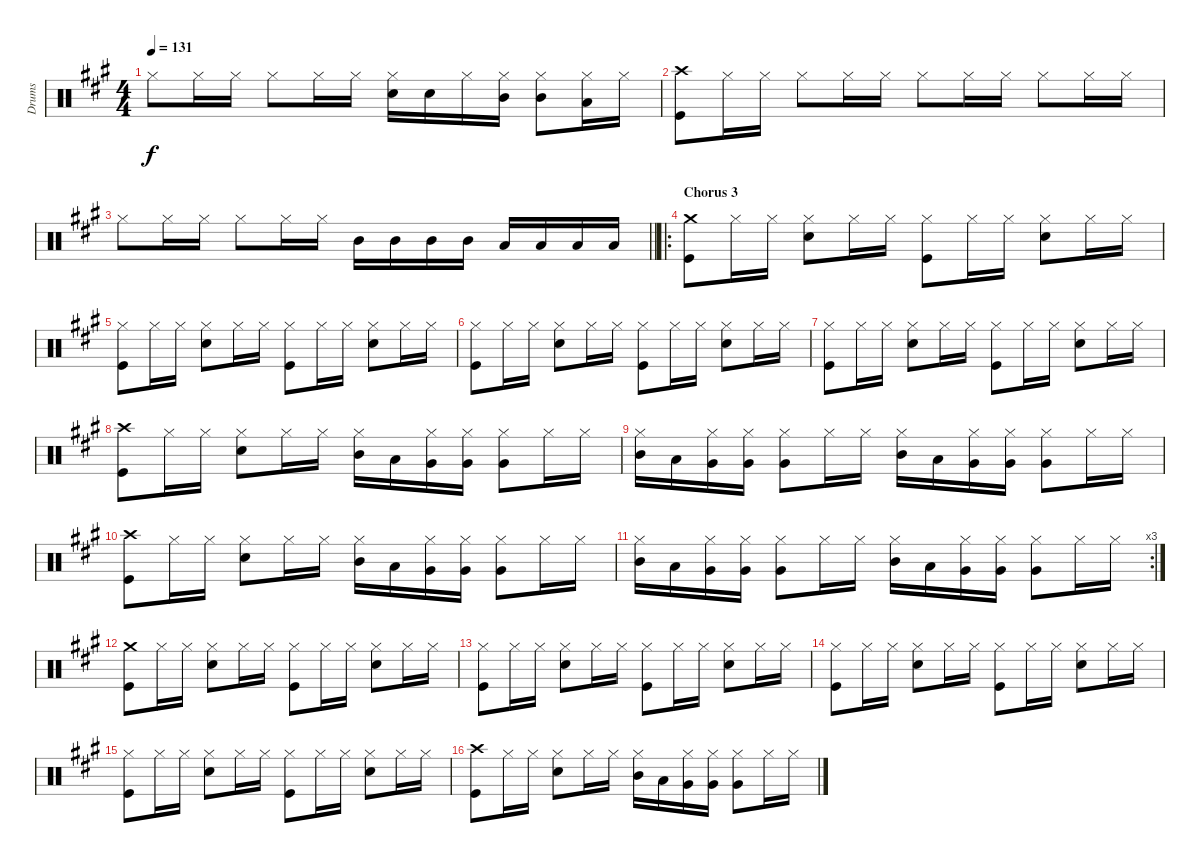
\track ("Drums" "Drums") {instrument percussion}
\staff {score}
\articulation defaults
\ts (4 4)
\tempo 131
\clef neutral
\ks a "Hi-Hat (closed)".8{dy f} "Hi-Hat (closed)".16 "Hi-Hat (closed)".16 "Hi-Hat (closed)".8 "Hi-Hat (closed)".16 "Hi-Hat (closed)".16
("Hi-Hat (closed)" "Snare (hit) 2").16 "Snare (hit) 2".16 "Hi-Hat (closed)".16 ("Hi-Hat (closed)" "Mid Tom (hit)").16 ("Hi-Hat (closed)" "Mid Tom (hit)").8 ("Hi-Hat (closed)" "Low Tom (hit)").16 "Hi-Hat (closed)".16 |
("Crash high (hit)" "Kick (hit)").8 "Hi-Hat (closed)".16 "Hi-Hat (closed)".16 "Hi-Hat (closed)".8 "Hi-Hat (closed)".16 "Hi-Hat (closed)".16 "Hi-Hat (closed)".8 "Hi-Hat (closed)".16 "Hi-Hat (closed)".16 "Hi-Hat (closed)".8 "Hi-Hat (closed)".16 "Hi-Hat (closed)".16 |
\barLineRight lightlight "Hi-Hat (closed)".8 "Hi-Hat (closed)".16 "Hi-Hat (closed)".16 "Hi-Hat (closed)".8 "Hi-Hat (closed)".16 "Hi-Hat (closed)".16 "Mid Tom (hit)".16 "Mid Tom (hit)".16 "Mid Tom (hit)".16 "Mid Tom (hit)".16 "Low Tom (hit)".16 "Low Tom (hit)".16 "Low Tom (hit)".16 "Low Tom (hit)".16
|
\ro
\section ("" "Chorus 3")
("Crash medium (hit)" "Kick (hit)").8 "Hi-Hat (closed)".16 "Hi-Hat (closed)".16 ("Hi-Hat (closed)" "Snare (hit) 2").8 "Hi-Hat (closed)".16 "Hi-Hat (closed)".16 ("Hi-Hat (closed)" "Kick (hit)").8 "Hi-Hat (closed)".16 "Hi-Hat (closed)".16 ("Hi-Hat (closed)" "Snare (hit) 2").8 "Hi-Hat (closed)".16 "Hi-Hat (closed)".16 |
("Hi-Hat (closed)" "Kick (hit)").8 "Hi-Hat (closed)".16 "Hi-Hat (closed)".16 ("Hi-Hat (closed)" "Snare (hit) 2").8 "Hi-Hat (closed)".16 "Hi-Hat (closed)".16 ("Hi-Hat (closed)" "Kick (hit)").8 "Hi-Hat (closed)".16 "Hi-Hat (closed)".16 ("Hi-Hat (closed)" "Snare (hit) 2").8 "Hi-Hat (closed)".16 "Hi-Hat (closed)".16 |
("Hi-Hat (closed)" "Kick (hit)").8 "Hi-Hat (closed)".16 "Hi-Hat (closed)".16 ("Hi-Hat (closed)" "Snare (hit) 2").8 "Hi-Hat (closed)".16 "Hi-Hat (closed)".16 ("Hi-Hat (closed)" "Kick (hit)").8 "Hi-Hat (closed)".16 "Hi-Hat (closed)".16 ("Hi-Hat (closed)" "Snare (hit) 2").8 "Hi-Hat (closed)".16 "Hi-Hat (closed)".16 |
("Hi-Hat (closed)" "Kick (hit)").8 "Hi-Hat (closed)".16 "Hi-Hat (closed)".16 ("Hi-Hat (closed)" "Snare (hit) 2").8 "Hi-Hat (closed)".16 "Hi-Hat (closed)".16 ("Hi-Hat (closed)" "Kick (hit)").8 "Hi-Hat (closed)".16 "Hi-Hat (closed)".16 ("Hi-Hat (closed)" "Snare (hit) 2").8 "Hi-Hat (closed)".16 "Hi-Hat (closed)".16 |
("Crash high (hit)" "Kick (hit)").8 "Hi-Hat (closed)".16 "Hi-Hat (closed)".16 ("Hi-Hat (closed)" "Snare (hit) 2").8 "Hi-Hat (closed)".16 "Hi-Hat (closed)".16 ("Hi-Hat (closed)" "Mid Tom (hit)").16 "Low Tom (hit)".16 ("Hi-Hat (closed)" "Very Low Tom (hit)").16 ("Hi-Hat (closed)" "Very Low Tom (hit)").16 ("Hi-Hat (closed)" "Very Low Tom (hit)").8 "Hi-Hat (closed)".16 "Hi-Hat (closed)".16 |
("Hi-Hat (closed)" "Mid Tom (hit)").16 "Low Tom (hit)".16 ("Hi-Hat (closed)" "Very Low Tom (hit)").16 ("Hi-Hat (closed)" "Very Low Tom (hit)").16 ("Hi-Hat (closed)" "Very Low Tom (hit)").8 "Hi-Hat (closed)".16 "Hi-Hat (closed)".16 ("Hi-Hat (closed)" "Mid Tom (hit)").16 "Low Tom (hit)".16 ("Hi-Hat (closed)" "Very Low Tom (hit)").16 ("Hi-Hat (closed)" "Very Low Tom (hit)").16 ("Hi-Hat (closed)" "Very Low Tom (hit)").8 "Hi-Hat (closed)".16 "Hi-Hat (closed)".16 |
("Crash high (hit)" "Kick (hit)").8 "Hi-Hat (closed)".16 "Hi-Hat (closed)".16 ("Hi-Hat (closed)" "Snare (hit) 2").8 "Hi-Hat (closed)".16 "Hi-Hat (closed)".16 ("Hi-Hat (closed)" "Mid Tom (hit)").16 "Low Tom (hit)".16 ("Hi-Hat (closed)" "Very Low Tom (hit)").16 ("Hi-Hat (closed)" "Very Low Tom (hit)").16 ("Hi-Hat (closed)" "Very Low Tom (hit)").8 "Hi-Hat (closed)".16 "Hi-Hat (closed)".16 |
\rc 3
("Hi-Hat (closed)" "Mid Tom (hit)").16 "Low Tom (hit)".16 ("Hi-Hat (closed)" "Very Low Tom (hit)").16 ("Hi-Hat (closed)" "Very Low Tom (hit)").16 ("Hi-Hat (closed)" "Very Low Tom (hit)").8 "Hi-Hat (closed)".16 "Hi-Hat (closed)".16 ("Hi-Hat (closed)" "Mid Tom (hit)").16 "Low Tom (hit)".16 ("Hi-Hat (closed)" "Very Low Tom (hit)").16 ("Hi-Hat (closed)" "Very Low Tom (hit)").16 ("Hi-Hat (closed)" "Very Low Tom (hit)").8 "Hi-Hat (closed)".16 "Hi-Hat (closed)".16 |
("Crash medium (hit)" "Kick (hit)").8 "Hi-Hat (closed)".16 "Hi-Hat (closed)".16 ("Hi-Hat (closed)" "Snare (hit) 2").8 "Hi-Hat (closed)".16 "Hi-Hat (closed)".16 ("Hi-Hat (closed)" "Kick (hit)").8 "Hi-Hat (closed)".16 "Hi-Hat (closed)".16 ("Hi-Hat (closed)" "Snare (hit) 2").8 "Hi-Hat (closed)".16 "Hi-Hat (closed)".16 |
("Hi-Hat (closed)" "Kick (hit)").8 "Hi-Hat (closed)".16 "Hi-Hat (closed)".16 ("Hi-Hat (closed)" "Snare (hit) 2").8 "Hi-Hat (closed)".16 "Hi-Hat (closed)".16 ("Hi-Hat (closed)" "Kick (hit)").8 "Hi-Hat (closed)".16 "Hi-Hat (closed)".16 ("Hi-Hat (closed)" "Snare (hit) 2").8 "Hi-Hat (closed)".16 "Hi-Hat (closed)".16 |
("Hi-Hat (closed)" "Kick (hit)").8 "Hi-Hat (closed)".16 "Hi-Hat (closed)".16 ("Hi-Hat (closed)" "Snare (hit) 2").8 "Hi-Hat (closed)".16 "Hi-Hat (closed)".16 ("Hi-Hat (closed)" "Kick (hit)").8 "Hi-Hat (closed)".16 "Hi-Hat (closed)".16 ("Hi-Hat (closed)" "Snare (hit) 2").8 "Hi-Hat (closed)".16 "Hi-Hat (closed)".16 |
("Hi-Hat (closed)" "Kick (hit)").8 "Hi-Hat (closed)".16 "Hi-Hat (closed)".16 ("Hi-Hat (closed)" "Snare (hit) 2").8 "Hi-Hat (closed)".16 "Hi-Hat (closed)".16 ("Hi-Hat (closed)" "Kick (hit)").8 "Hi-Hat (closed)".16 "Hi-Hat (closed)".16 ("Hi-Hat (closed)" "Snare (hit) 2").8 "Hi-Hat (closed)".16 "Hi-Hat (closed)".16 |
("Crash high (hit)" "Kick (hit)").8 "Hi-Hat (closed)".16 "Hi-Hat (closed)".16 ("Hi-Hat (closed)" "Snare (hit) 2").8 "Hi-Hat (closed)".16 "Hi-Hat (closed)".16 ("Hi-Hat (closed)" "Mid Tom (hit)").16 "Low Tom (hit)".16 ("Hi-Hat (closed)" "Very Low Tom (hit)").16 ("Hi-Hat (closed)" "Very Low Tom (hit)").16 ("Hi-Hat (closed)" "Very Low Tom (hit)").8 "Hi-Hat (closed)".16 "Hi-Hat (closed)".16
